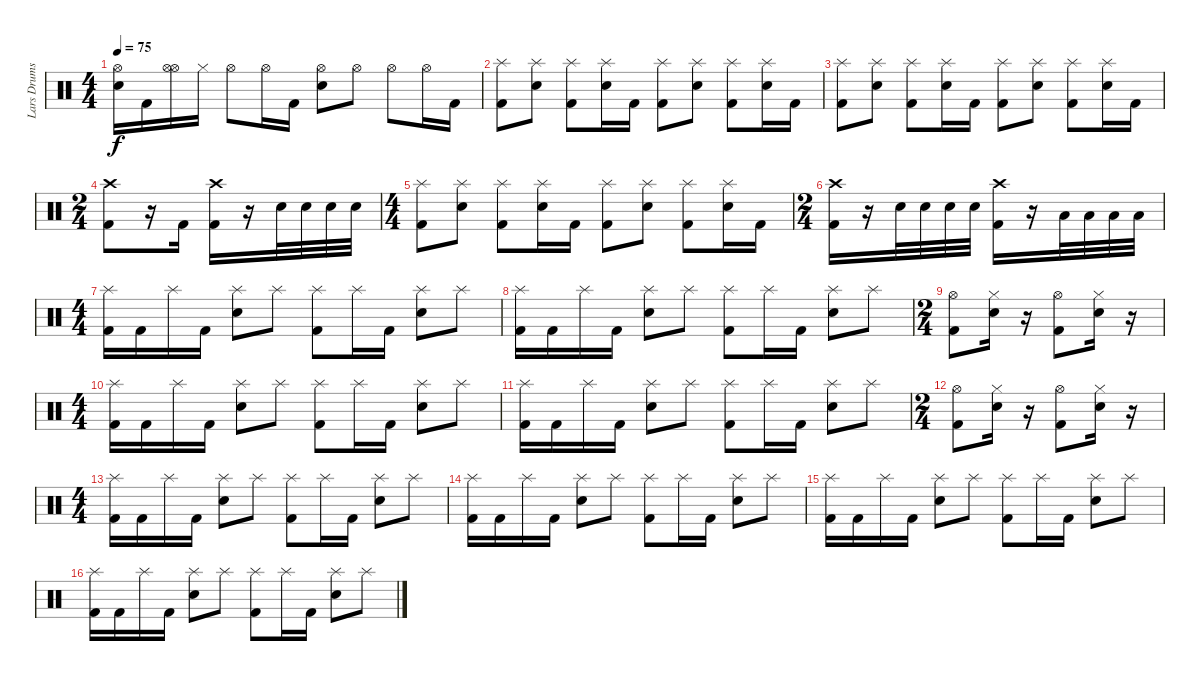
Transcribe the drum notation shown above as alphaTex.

\track ("Lars Drums" "Lars Drums") {instrument percussion}
\staff {score}
\articulation defaults
\ts (4 4)
\tempo 75
\clef neutral
\ks c
("Hi-Hat (open)" "Snare (hit) 2").16{dy f} "Kick (hit) 2".16 ("Hi-Hat (open)" "Hi-Hat (open)").16 "Hi-Hat (closed)".16 "Hi-Hat (open)".8 "Hi-Hat (open)".16 "Kick (hit) 2".16 ("Hi-Hat (open)" "Snare (hit) 2").8 "Hi-Hat (open)".8 "Hi-Hat (open)".8 "Hi-Hat (open)".16 "Kick (hit) 2".16 |
("Splash (hit)" "Kick (hit) 2").8 ("Splash (hit)" "Snare (hit) 2").8 ("Splash (hit)" "Kick (hit) 2").8 ("Splash (hit)" "Snare (hit) 2").16 "Kick (hit) 2".16 ("Splash (hit)" "Kick (hit) 2").8 ("Splash (hit)" "Snare (hit) 2").8 ("Splash (hit)" "Kick (hit) 2").8 ("Splash (hit)" "Snare (hit) 2").16 "Kick (hit) 2".16 |
("Splash (hit)" "Kick (hit) 2").8 ("Splash (hit)" "Snare (hit) 2").8 ("Splash (hit)" "Kick (hit) 2").8 ("Splash (hit)" "Snare (hit) 2").16 "Kick (hit) 2".16 ("Splash (hit)" "Kick (hit) 2").8 ("Splash (hit)" "Snare (hit) 2").8 ("Splash (hit)" "Kick (hit) 2").8 ("Splash (hit)" "Snare (hit) 2").16 "Kick (hit) 2".16 |
\ts (2 4)
("Crash high (hit)" "Kick (hit) 2").8 r.16 "Kick (hit) 2".16 ("Crash high (hit)" "Kick (hit) 2").16 r.16 "Snare (hit) 2".32 "Snare (hit) 2".32 "Snare (hit) 2".32 "Snare (hit) 2".32 |
\ts (4 4)
("Splash (hit)" "Kick (hit) 2").8 ("Splash (hit)" "Snare (hit) 2").8 ("Splash (hit)" "Kick (hit) 2").8 ("Splash (hit)" "Snare (hit) 2").16 "Kick (hit) 2".16 ("Splash (hit)" "Kick (hit) 2").8 ("Splash (hit)" "Snare (hit) 2").8 ("Splash (hit)" "Kick (hit) 2").8 ("Splash (hit)" "Snare (hit) 2").16 "Kick (hit) 2".16 |
\ts (2 4)
("Crash high (hit)" "Kick (hit) 2").16 r.16 "Snare (hit) 2".32 "Snare (hit) 2".32 "Snare (hit) 2".32 "Snare (hit) 2".32 ("Crash high (hit)" "Kick (hit) 2").16 r.16 "Low Floor Tom (hit)".32 "Low Floor Tom (hit)".32 "Low Floor Tom (hit)".32 "Low Floor Tom (hit)".32 |
\ts (4 4)
("Splash (hit)" "Kick (hit) 2").16 "Kick (hit) 2".16 "Splash (hit)".16 "Kick (hit) 2".16 ("Splash (hit)" "Snare (hit) 2").8 "Splash (hit)".8 ("Splash (hit)" "Kick (hit) 2").8 "Splash (hit)".16 "Kick (hit) 2".16 ("Splash (hit)" "Snare (hit) 2").8 "Splash (hit)".8 |
("Splash (hit)" "Kick (hit) 2").16 "Kick (hit) 2".16 "Splash (hit)".16 "Kick (hit) 2".16 ("Splash (hit)" "Snare (hit) 2").8 "Splash (hit)".8 ("Splash (hit)" "Kick (hit) 2").8 "Splash (hit)".16 "Kick (hit) 2".16 ("Splash (hit)" "Snare (hit) 2").8 "Splash (hit)".8 |
\ts (2 4)
("Hi-Hat (open)" "Kick (hit) 2").8 ("Hi-Hat (closed)" "Snare (hit) 2").16 r.16 ("Hi-Hat (open)" "Kick (hit) 2").8 ("Hi-Hat (closed)" "Snare (hit) 2").16 r.16 |
\ts (4 4)
("Splash (hit)" "Kick (hit) 2").16 "Kick (hit) 2".16 "Splash (hit)".16 "Kick (hit) 2".16 ("Splash (hit)" "Snare (hit) 2").8 "Splash (hit)".8 ("Splash (hit)" "Kick (hit) 2").8 "Splash (hit)".16 "Kick (hit) 2".16 ("Splash (hit)" "Snare (hit) 2").8 "Splash (hit)".8 |
("Splash (hit)" "Kick (hit) 2").16 "Kick (hit) 2".16 "Splash (hit)".16 "Kick (hit) 2".16 ("Splash (hit)" "Snare (hit) 2").8 "Splash (hit)".8 ("Splash (hit)" "Kick (hit) 2").8 "Splash (hit)".16 "Kick (hit) 2".16 ("Splash (hit)" "Snare (hit) 2").8 "Splash (hit)".8 |
\ts (2 4)
("Hi-Hat (open)" "Kick (hit) 2").8 ("Hi-Hat (closed)" "Snare (hit) 2").16 r.16 ("Hi-Hat (open)" "Kick (hit) 2").8 ("Hi-Hat (closed)" "Snare (hit) 2").16 r.16 |
\ts (4 4)
("Splash (hit)" "Kick (hit) 2").16 "Kick (hit) 2".16 "Splash (hit)".16 "Kick (hit) 2".16 ("Splash (hit)" "Snare (hit) 2").8 "Splash (hit)".8 ("Splash (hit)" "Kick (hit) 2").8 "Splash (hit)".16 "Kick (hit) 2".16 ("Splash (hit)" "Snare (hit) 2").8 "Splash (hit)".8 |
("Splash (hit)" "Kick (hit) 2").16 "Kick (hit) 2".16 "Splash (hit)".16 "Kick (hit) 2".16 ("Splash (hit)" "Snare (hit) 2").8 "Splash (hit)".8 ("Splash (hit)" "Kick (hit) 2").8 "Splash (hit)".16 "Kick (hit) 2".16 ("Splash (hit)" "Snare (hit) 2").8 "Splash (hit)".8 |
("Splash (hit)" "Kick (hit) 2").16 "Kick (hit) 2".16 "Splash (hit)".16 "Kick (hit) 2".16 ("Splash (hit)" "Snare (hit) 2").8 "Splash (hit)".8 ("Splash (hit)" "Kick (hit) 2").8 "Splash (hit)".16 "Kick (hit) 2".16 ("Splash (hit)" "Snare (hit) 2").8 "Splash (hit)".8 |
("Splash (hit)" "Kick (hit) 2").16 "Kick (hit) 2".16 "Splash (hit)".16 "Kick (hit) 2".16 ("Splash (hit)" "Snare (hit) 2").8 "Splash (hit)".8 ("Splash (hit)" "Kick (hit) 2").8 "Splash (hit)".16 "Kick (hit) 2".16 ("Splash (hit)" "Snare (hit) 2").8 "Splash (hit)".8
